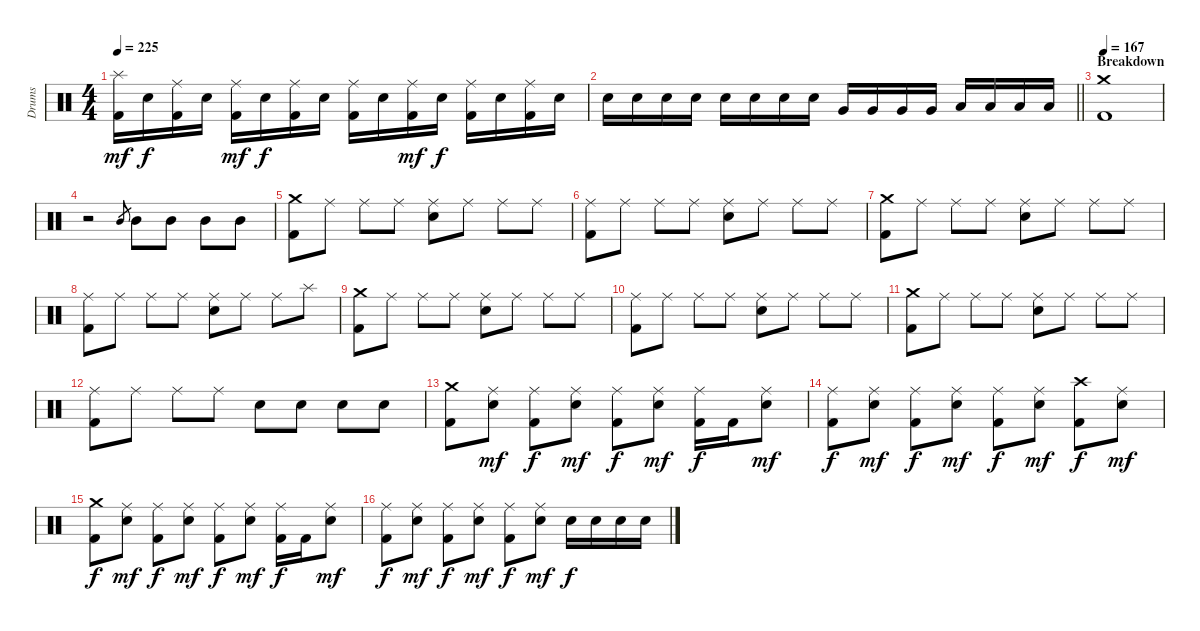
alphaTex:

\track ("Drums" "Drums") {instrument percussion}
\staff {score}
\articulation defaults
\ts (4 4)
\tempo 225
\clef neutral
\ks c
("Splash (hit)" "Kick (hit) 2").16{dy mf} "Snare (hit) 2".16{dy f} ("Ride (middle)" "Kick (hit) 2").16 "Snare (hit) 2".16 ("Ride (middle)" "Kick (hit) 2").16{dy mf} "Snare (hit) 2".16{dy f} ("Ride (middle)" "Kick (hit) 2").16 "Snare (hit) 2".16 ("Ride (middle)" "Kick (hit) 2").16 "Snare (hit) 2".16 ("Ride (middle)" "Kick (hit) 2").16{dy mf} "Snare (hit) 2".16{dy f} ("Ride (middle)" "Kick (hit) 2").16 "Snare (hit) 2".16 ("Ride (middle)" "Kick (hit) 2").16 "Snare (hit) 2".16 |
\barLineRight lightlight "Snare (hit) 2".16 "Snare (hit) 2".16 "Snare (hit) 2".16 "Snare (hit) 2".16 "Snare (hit) 2".16 "Snare (hit) 2".16 "Snare (hit) 2".16 "Snare (hit) 2".16 "Very Low Tom (hit)".16 "Very Low Tom (hit)".16 "Very Low Tom (hit)".16 "Very Low Tom (hit)".16 "Low Floor Tom (hit)".16 "Low Floor Tom (hit)".16 "Low Floor Tom (hit)".16 "Low Floor Tom (hit)".16
|
\section ("" "Breakdown")
\tempo 167
("Crash medium (hit)" "Kick (hit) 2").1 |
r.2 "Mid Tom (hit)".8{gr} "Mid Tom (hit)".8 "Mid Tom (hit)".8 "Mid Tom (hit)".8 "Mid Tom (hit)".8 |
("Crash medium (hit)" "Kick (hit) 2").8 "Ride (middle)".8 "Ride (middle)".8 "Ride (middle)".8 ("Ride (middle)" "Snare (hit) 2").8 "Ride (middle)".8 "Ride (middle)".8 "Ride (middle)".8 |
("Ride (middle)" "Kick (hit) 2").8 "Ride (middle)".8 "Ride (middle)".8 "Ride (middle)".8 ("Ride (middle)" "Snare (hit) 2").8 "Ride (middle)".8 "Ride (middle)".8 "Ride (middle)".8 |
("Crash medium (hit)" "Kick (hit) 2").8 "Ride (middle)".8 "Ride (middle)".8 "Ride (middle)".8 ("Ride (middle)" "Snare (hit) 2").8 "Ride (middle)".8 "Ride (middle)".8 "Ride (middle)".8 |
("Ride (middle)" "Kick (hit) 2").8 "Ride (middle)".8 "Ride (middle)".8 "Ride (middle)".8 ("Ride (middle)" "Snare (hit) 2").8 "Ride (middle)".8 "Ride (middle)".8 "Splash (hit)".8 |
("Crash medium (hit)" "Kick (hit) 2").8 "Ride (middle)".8 "Ride (middle)".8 "Ride (middle)".8 ("Ride (middle)" "Snare (hit) 2").8 "Ride (middle)".8 "Ride (middle)".8 "Ride (middle)".8 |
("Ride (middle)" "Kick (hit) 2").8 "Ride (middle)".8 "Ride (middle)".8 "Ride (middle)".8 ("Ride (middle)" "Snare (hit) 2").8 "Ride (middle)".8 "Ride (middle)".8 "Ride (middle)".8 |
("Crash medium (hit)" "Kick (hit) 2").8 "Ride (middle)".8 "Ride (middle)".8 "Ride (middle)".8 ("Ride (middle)" "Snare (hit) 2").8 "Ride (middle)".8 "Ride (middle)".8 "Ride (middle)".8 |
("Ride (middle)" "Kick (hit) 2").8 "Ride (middle)".8 "Ride (middle)".8 "Ride (middle)".8 "Snare (hit) 2".8 "Snare (hit) 2".8 "Snare (hit) 2".8 "Snare (hit) 2".8 |
("Crash medium (hit)" "Kick (hit) 2").8 ("Ride (middle)" "Snare (hit) 2").8{dy mf} ("Ride (middle)" "Kick (hit) 2").8{dy f} ("Ride (middle)" "Snare (hit) 2").8{dy mf} ("Ride (middle)" "Kick (hit) 2").8{dy f} ("Ride (middle)" "Snare (hit) 2").8{dy mf} ("Ride (middle)" "Kick (hit) 2").16{dy f} "Kick (hit) 2".16 ("Ride (middle)" "Snare (hit) 2").8{dy mf} |
("Ride (middle)" "Kick (hit) 2").8{dy f} ("Ride (middle)" "Snare (hit) 2").8{dy mf} ("Ride (middle)" "Kick (hit) 2").8{dy f} ("Ride (middle)" "Snare (hit) 2").8{dy mf} ("Ride (middle)" "Kick (hit) 2").8{dy f} ("Ride (middle)" "Snare (hit) 2").8{dy mf} ("Crash high (hit)" "Kick (hit) 2").8{dy f} ("Ride (middle)" "Snare (hit) 2").8{dy mf} |
("Crash medium (hit)" "Kick (hit) 2").8{dy f} ("Ride (middle)" "Snare (hit) 2").8{dy mf} ("Ride (middle)" "Kick (hit) 2").8{dy f} ("Ride (middle)" "Snare (hit) 2").8{dy mf} ("Ride (middle)" "Kick (hit) 2").8{dy f} ("Ride (middle)" "Snare (hit) 2").8{dy mf} ("Ride (middle)" "Kick (hit) 2").16{dy f} "Kick (hit) 2".16 ("Ride (middle)" "Snare (hit) 2").8{dy mf} |
("Ride (middle)" "Kick (hit) 2").8{dy f} ("Ride (middle)" "Snare (hit) 2").8{dy mf} ("Ride (middle)" "Kick (hit) 2").8{dy f} ("Ride (middle)" "Snare (hit) 2").8{dy mf} ("Ride (middle)" "Kick (hit) 2").8{dy f} ("Ride (middle)" "Snare (hit) 2").8{dy mf} "Snare (hit) 2".16{dy f} "Snare (hit) 2".16 "Snare (hit) 2".16 "Snare (hit) 2".16
